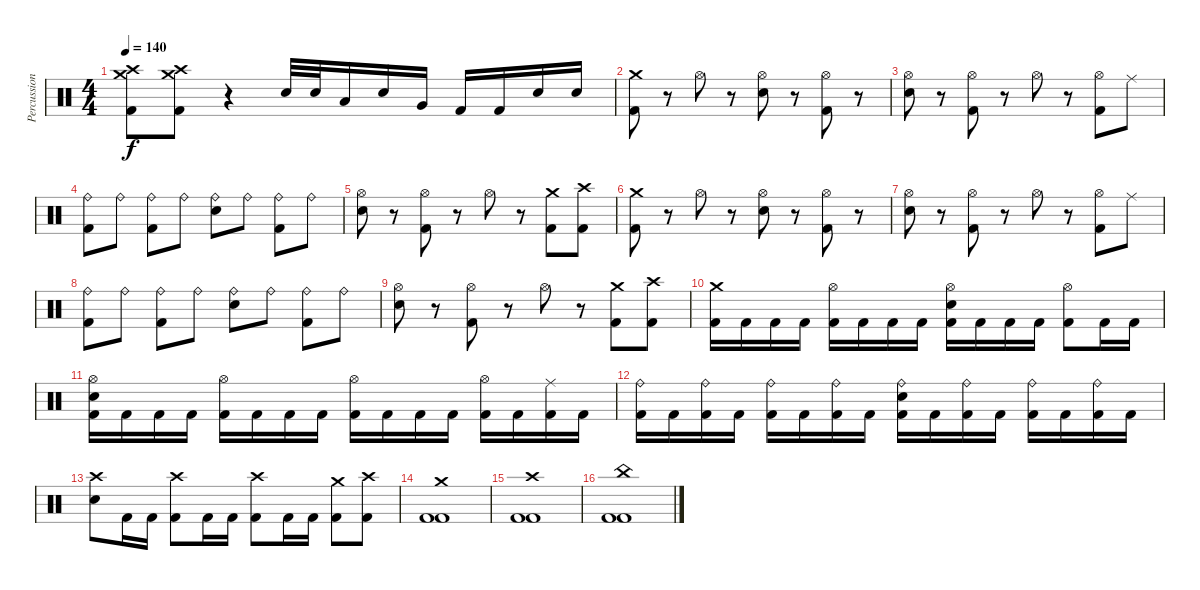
\track ("Percussion" "Percussion") {instrument percussion}
\staff {score}
\articulation defaults
\ts (4 4)
\tempo 140
\clef neutral
\ks c
("Crash medium (hit)" "Crash high (hit)" "Kick (hit) 2").8{dy f} ("Crash medium (hit)" "Crash high (hit)" "Kick (hit) 2").8 r.4 "Electric Snare (hit)".32 "Electric Snare (hit)".32 "Low Tom (hit)".16 "Electric Snare (hit)".16 "Very Low Tom (hit)".16 "Kick (hit) 2".16 "Kick (hit) 2".16 "Electric Snare (hit)".16 "Electric Snare (hit)".16 |
("Crash medium (hit)" "Kick (hit) 2").8 r.8 "Hi-Hat (open)".8 r.8 ("Hi-Hat (open)" "Electric Snare (hit)").8 r.8 ("Hi-Hat (open)" "Kick (hit) 2").8 r.8 |
("Hi-Hat (open)" "Electric Snare (hit)").8 r.8 ("Hi-Hat (open)" "Kick (hit) 2").8 r.8 "Hi-Hat (open)".8 r.8 ("Hi-Hat (open)" "Kick (hit) 2").8 "Ride (middle)".8 |
("Ride (bell)" "Kick (hit) 2").8 "Ride (bell)".8 ("Ride (bell)" "Kick (hit) 2").8 "Ride (bell)".8 ("Ride (bell)" "Electric Snare (hit)").8 "Ride (bell)".8 ("Ride (bell)" "Kick (hit) 2").8 "Ride (bell)".8 |
("Hi-Hat (open)" "Electric Snare (hit)").8 r.8 ("Hi-Hat (open)" "Kick (hit) 2").8 r.8 "Hi-Hat (open)".8 r.8 ("Crash medium (hit)" "Kick (hit) 2").8 ("Crash high (hit)" "Kick (hit) 2").8 |
("Crash medium (hit)" "Kick (hit) 2").8 r.8 "Hi-Hat (open)".8 r.8 ("Hi-Hat (open)" "Electric Snare (hit)").8 r.8 ("Hi-Hat (open)" "Kick (hit) 2").8 r.8 |
("Hi-Hat (open)" "Electric Snare (hit)").8 r.8 ("Hi-Hat (open)" "Kick (hit) 2").8 r.8 "Hi-Hat (open)".8 r.8 ("Hi-Hat (open)" "Kick (hit) 2").8 "Ride (middle)".8 |
("Ride (bell)" "Kick (hit) 2").8 "Ride (bell)".8 ("Ride (bell)" "Kick (hit) 2").8 "Ride (bell)".8 ("Ride (bell)" "Electric Snare (hit)").8 "Ride (bell)".8 ("Ride (bell)" "Kick (hit) 2").8 "Ride (bell)".8 |
("Hi-Hat (open)" "Electric Snare (hit)").8 r.8 ("Hi-Hat (open)" "Kick (hit) 2").8 r.8 "Hi-Hat (open)".8 r.8 ("Crash medium (hit)" "Kick (hit) 2").8 ("Crash high (hit)" "Kick (hit) 2").8 |
("Crash medium (hit)" "Kick (hit) 2").16 "Kick (hit) 2".16 "Kick (hit) 2".16 "Kick (hit) 2".16 ("Hi-Hat (open)" "Kick (hit) 2").16 "Kick (hit) 2".16 "Kick (hit) 2".16 "Kick (hit) 2".16 ("Hi-Hat (open)" "Electric Snare (hit)" "Kick (hit) 2").16 "Kick (hit) 2".16 "Kick (hit) 2".16 "Kick (hit) 2".16 ("Hi-Hat (open)" "Kick (hit) 2").8 "Kick (hit) 2".16 "Kick (hit) 2".16 |
("Hi-Hat (open)" "Electric Snare (hit)" "Kick (hit) 2").16 "Kick (hit) 2".16 "Kick (hit) 2".16 "Kick (hit) 2".16 ("Hi-Hat (open)" "Kick (hit) 2").16 "Kick (hit) 2".16 "Kick (hit) 2".16 "Kick (hit) 2".16 ("Hi-Hat (open)" "Kick (hit) 2").16 "Kick (hit) 2".16 "Kick (hit) 2".16 "Kick (hit) 2".16 ("Hi-Hat (open)" "Kick (hit) 2").16 "Kick (hit) 2".16 ("Ride (middle)" "Kick (hit) 2").16 "Kick (hit) 2".16 |
("Ride (bell)" "Kick (hit) 2").16 "Kick (hit) 2".16 ("Ride (bell)" "Kick (hit) 2").16 "Kick (hit) 2".16 ("Ride (bell)" "Kick (hit) 2").16 "Kick (hit) 2".16 ("Ride (bell)" "Kick (hit) 2").16 "Kick (hit) 2".16 ("Ride (bell)" "Electric Snare (hit)" "Kick (hit) 2").16 "Kick (hit) 2".16 ("Ride (bell)" "Kick (hit) 2").16 "Kick (hit) 2".16 ("Ride (bell)" "Kick (hit) 2").16 "Kick (hit) 2".16 ("Ride (bell)" "Kick (hit) 2").16 "Kick (hit) 2".16 |
("Crash high (hit)" "Electric Snare (hit)").8 "Kick (hit) 2".16 "Kick (hit) 2".16 ("Crash high (hit)" "Kick (hit) 2").8 "Kick (hit) 2".16 "Kick (hit) 2".16 ("Crash high (hit)" "Kick (hit) 2").8 "Kick (hit) 2".16 "Kick (hit) 2".16 ("Crash medium (hit)" "Kick (hit) 2").8 ("Crash high (hit)" "Kick (hit) 2").8 |
("Crash medium (hit)" "Kick (hit) 2" "Kick (hit) 2").1 |
("Crash high (hit)" "Kick (hit) 2" "Kick (hit) 2").1 |
("China (hit)" "Kick (hit) 2" "Kick (hit) 2").1
